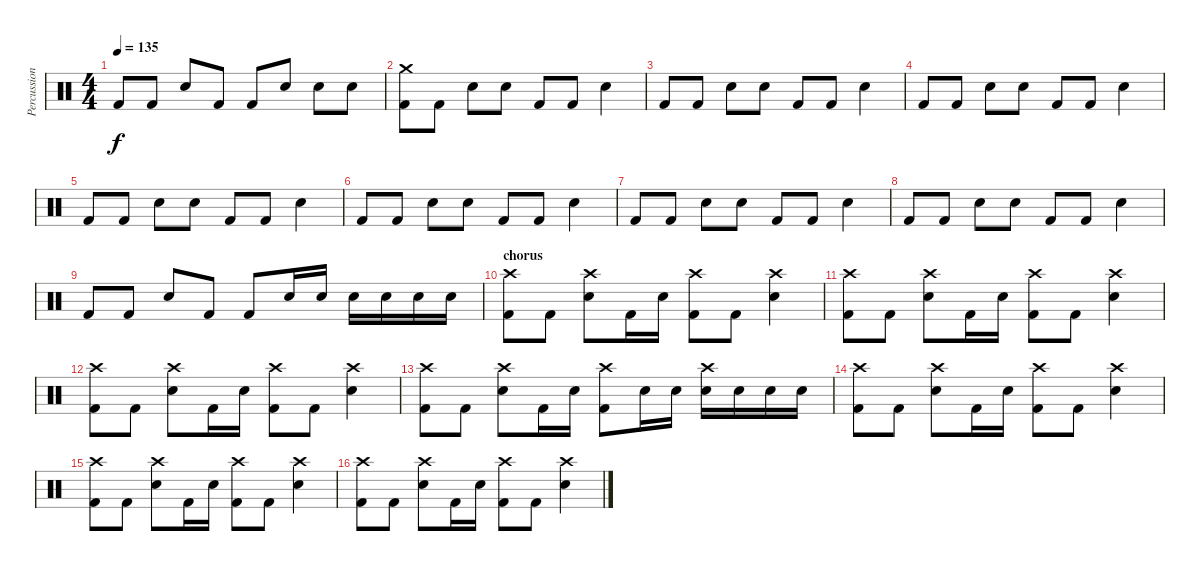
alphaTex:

\track ("Percussion" "Percussion") {instrument percussion}
\staff {score}
\articulation defaults
\ts (4 4)
\tempo 135
\clef neutral
\ks c "Kick (hit) 2".8{dy f} "Kick (hit) 2".8 "Snare (hit) 2".8 "Kick (hit) 2".8 "Kick (hit) 2".8 "Snare (hit) 2".8 "Snare (hit) 2".8 "Snare (hit) 2".8
|
("Kick (hit) 2" "Crash medium (hit)").8 "Kick (hit) 2".8 "Snare (hit) 2".8 "Snare (hit) 2".8 "Kick (hit) 2".8 "Kick (hit) 2".8 "Snare (hit) 2".4 |
"Kick (hit) 2".8 "Kick (hit) 2".8 "Snare (hit) 2".8 "Snare (hit) 2".8 "Kick (hit) 2".8 "Kick (hit) 2".8 "Snare (hit) 2".4 |
"Kick (hit) 2".8 "Kick (hit) 2".8 "Snare (hit) 2".8 "Snare (hit) 2".8 "Kick (hit) 2".8 "Kick (hit) 2".8 "Snare (hit) 2".4 |
"Kick (hit) 2".8 "Kick (hit) 2".8 "Snare (hit) 2".8 "Snare (hit) 2".8 "Kick (hit) 2".8 "Kick (hit) 2".8 "Snare (hit) 2".4 |
"Kick (hit) 2".8 "Kick (hit) 2".8 "Snare (hit) 2".8 "Snare (hit) 2".8 "Kick (hit) 2".8 "Kick (hit) 2".8 "Snare (hit) 2".4 |
"Kick (hit) 2".8 "Kick (hit) 2".8 "Snare (hit) 2".8 "Snare (hit) 2".8 "Kick (hit) 2".8 "Kick (hit) 2".8 "Snare (hit) 2".4 |
"Kick (hit) 2".8 "Kick (hit) 2".8 "Snare (hit) 2".8 "Snare (hit) 2".8 "Kick (hit) 2".8 "Kick (hit) 2".8 "Snare (hit) 2".4 |
"Kick (hit) 2".8 "Kick (hit) 2".8 "Snare (hit) 2".8 "Kick (hit) 2".8 "Kick (hit) 2".8 "Snare (hit) 2".16 "Snare (hit) 2".16 "Snare (hit) 2".16 "Snare (hit) 2".16 "Snare (hit) 2".16 "Snare (hit) 2".16 |
\section ("" "chorus")
("Kick (hit) 2" "Crash high (hit)").8 "Kick (hit) 2".8 ("Snare (hit) 2" "Crash high (hit)").8 "Kick (hit) 2".16 "Snare (hit) 2".16 ("Kick (hit) 2" "Crash high (hit)").8 "Kick (hit) 2".8 ("Snare (hit) 2" "Crash high (hit)").4 |
("Kick (hit) 2" "Crash high (hit)").8 "Kick (hit) 2".8 ("Snare (hit) 2" "Crash high (hit)").8 "Kick (hit) 2".16 "Snare (hit) 2".16 ("Kick (hit) 2" "Crash high (hit)").8 "Kick (hit) 2".8 ("Snare (hit) 2" "Crash high (hit)").4 |
("Kick (hit) 2" "Crash high (hit)").8 "Kick (hit) 2".8 ("Snare (hit) 2" "Crash high (hit)").8 "Kick (hit) 2".16 "Snare (hit) 2".16 ("Kick (hit) 2" "Crash high (hit)").8 "Kick (hit) 2".8 ("Snare (hit) 2" "Crash high (hit)").4 |
("Kick (hit) 2" "Crash high (hit)").8 "Kick (hit) 2".8 ("Snare (hit) 2" "Crash high (hit)").8 "Kick (hit) 2".16 "Snare (hit) 2".16 ("Kick (hit) 2" "Crash high (hit)").8 "Snare (hit) 2".16 "Snare (hit) 2".16 ("Snare (hit) 2" "Crash high (hit)").16 "Snare (hit) 2".16 "Snare (hit) 2".16 "Snare (hit) 2".16 |
("Kick (hit) 2" "Crash high (hit)").8 "Kick (hit) 2".8 ("Snare (hit) 2" "Crash high (hit)").8 "Kick (hit) 2".16 "Snare (hit) 2".16 ("Kick (hit) 2" "Crash high (hit)").8 "Kick (hit) 2".8 ("Snare (hit) 2" "Crash high (hit)").4 |
("Kick (hit) 2" "Crash high (hit)").8 "Kick (hit) 2".8 ("Snare (hit) 2" "Crash high (hit)").8 "Kick (hit) 2".16 "Snare (hit) 2".16 ("Kick (hit) 2" "Crash high (hit)").8 "Kick (hit) 2".8 ("Snare (hit) 2" "Crash high (hit)").4 |
("Kick (hit) 2" "Crash high (hit)").8 "Kick (hit) 2".8 ("Snare (hit) 2" "Crash high (hit)").8 "Kick (hit) 2".16 "Snare (hit) 2".16 ("Kick (hit) 2" "Crash high (hit)").8 "Kick (hit) 2".8 ("Snare (hit) 2" "Crash high (hit)").4
